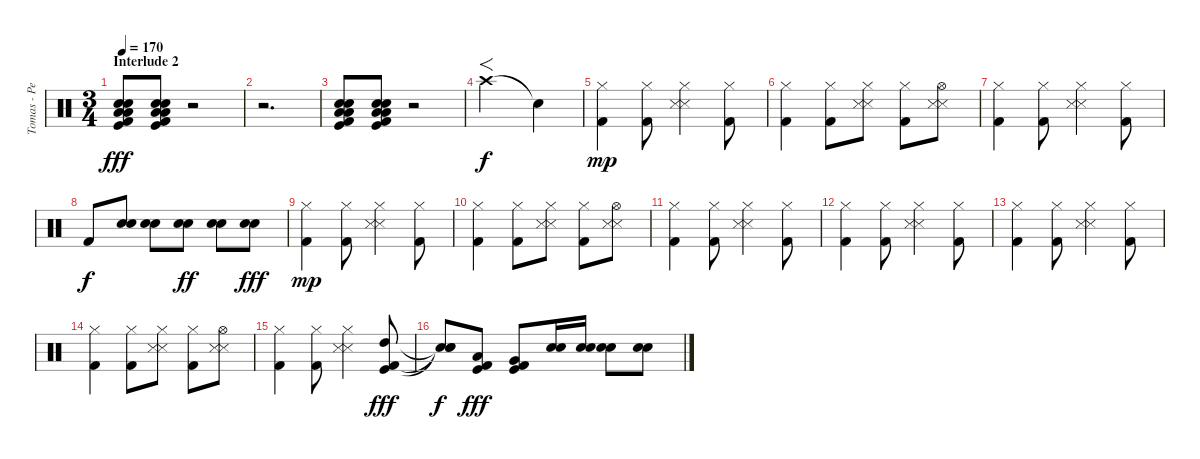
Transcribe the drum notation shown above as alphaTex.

\track ("Tomas - Percussions" "Tomas - Pe") {instrument percussion}
\staff {score}
\articulation defaults
\ts (3 4)
\section ("" "Interlude 2")
\tempo 170
\clef neutral
\ks c
("Kick (hit)" "Low Floor Tom (hit)" "Low Floor Tom (hit)" "Electric Snare (hit)" "Electric Snare (hit)" "Kick (hit) 2").8{dy fff} ("Kick (hit)" "Low Floor Tom (hit)" "Low Floor Tom (hit)" "Electric Snare (hit)" "Electric Snare (hit)" "Kick (hit) 2").8 r.2 |
r.2{d} |
("Kick (hit)" "Low Floor Tom (hit)" "Low Floor Tom (hit)" "Electric Snare (hit)" "Electric Snare (hit)" "Kick (hit) 2").8 ("Kick (hit)" "Low Floor Tom (hit)" "Low Floor Tom (hit)" "Electric Snare (hit)" "Electric Snare (hit)" "Kick (hit) 2").8 r.2 |
"Crash high (hit)".2{f dy f} "Snare (hit)"{t}.4 |
("Hi-Hat (closed)" "Kick (hit) 2").4{dy mp} ("Hi-Hat (closed)" "Kick (hit) 2").8 ("Hi-Hat (closed)" "Snare (side stick) 3" "Snare (side stick) 3").4 ("Hi-Hat (closed)" "Kick (hit) 2").8 |
("Hi-Hat (closed)" "Kick (hit) 2").4 ("Hi-Hat (closed)" "Kick (hit) 2").8 ("Hi-Hat (closed)" "Snare (side stick) 3" "Snare (side stick) 3").8 ("Hi-Hat (closed)" "Kick (hit) 2").8 ("Hi-Hat (open)" "Snare (side stick) 3" "Snare (side stick) 3").8 |
("Hi-Hat (closed)" "Kick (hit) 2").4 ("Hi-Hat (closed)" "Kick (hit) 2").8 ("Hi-Hat (closed)" "Snare (side stick) 3" "Snare (side stick) 3").4 ("Hi-Hat (closed)" "Kick (hit) 2").8 |
"Kick (hit) 2".8{dy f} ("Electric Snare (hit)" "Electric Snare (hit)").8 ("Electric Snare (hit)" "Electric Snare (hit)").8 ("Electric Snare (hit)" "Electric Snare (hit)").8{dy ff} ("Electric Snare (hit)" "Electric Snare (hit)").8 ("Electric Snare (hit)" "Electric Snare (hit)").8{dy fff} |
("Hi-Hat (closed)" "Kick (hit) 2").4{dy mp} ("Hi-Hat (closed)" "Kick (hit) 2").8 ("Hi-Hat (closed)" "Snare (side stick) 3" "Snare (side stick) 3").4 ("Hi-Hat (closed)" "Kick (hit) 2").8 |
("Hi-Hat (closed)" "Kick (hit) 2").4 ("Hi-Hat (closed)" "Kick (hit) 2").8 ("Hi-Hat (closed)" "Snare (side stick) 3" "Snare (side stick) 3").8 ("Hi-Hat (closed)" "Kick (hit) 2").8 ("Hi-Hat (open)" "Snare (side stick) 3" "Snare (side stick) 3").8 |
("Hi-Hat (closed)" "Kick (hit) 2").4 ("Hi-Hat (closed)" "Kick (hit) 2").8 ("Hi-Hat (closed)" "Snare (side stick) 3" "Snare (side stick) 3").4 ("Hi-Hat (closed)" "Kick (hit) 2").8 |
("Hi-Hat (closed)" "Kick (hit) 2").4 ("Hi-Hat (closed)" "Kick (hit) 2").8 ("Hi-Hat (closed)" "Snare (side stick) 3" "Snare (side stick) 3").4 ("Hi-Hat (closed)" "Kick (hit) 2").8 |
("Hi-Hat (closed)" "Kick (hit) 2").4 ("Hi-Hat (closed)" "Kick (hit) 2").8 ("Hi-Hat (closed)" "Snare (side stick) 3" "Snare (side stick) 3").4 ("Hi-Hat (closed)" "Kick (hit) 2").8 |
("Hi-Hat (closed)" "Kick (hit) 2").4 ("Hi-Hat (closed)" "Kick (hit) 2").8 ("Hi-Hat (closed)" "Snare (side stick) 3" "Snare (side stick) 3").8 ("Hi-Hat (closed)" "Kick (hit) 2").8 ("Hi-Hat (open)" "Snare (side stick) 3" "Snare (side stick) 3").8 |
("Hi-Hat (closed)" "Kick (hit) 2").4 ("Hi-Hat (closed)" "Kick (hit) 2").8 ("Hi-Hat (closed)" "Snare (side stick) 3" "Snare (side stick) 3").4 ("High Tom (hit)" "Kick (hit)" "Kick (hit) 2").8{dy fff} |
("Snare (hit)"{t} "Snare (hit)"{t} "Snare (hit)"{t}).8{dy f} ("Low Tom (hit)" "Kick (hit)" "Kick (hit) 2").8{dy fff} ("Very Low Tom (hit)" "Kick (hit)" "Kick (hit) 2").8 ("Electric Snare (hit)" "Electric Snare (hit)").16 ("Electric Snare (hit)" "Electric Snare (hit)").16 ("Electric Snare (hit)" "Electric Snare (hit)").8 ("Electric Snare (hit)" "Electric Snare (hit)").8
